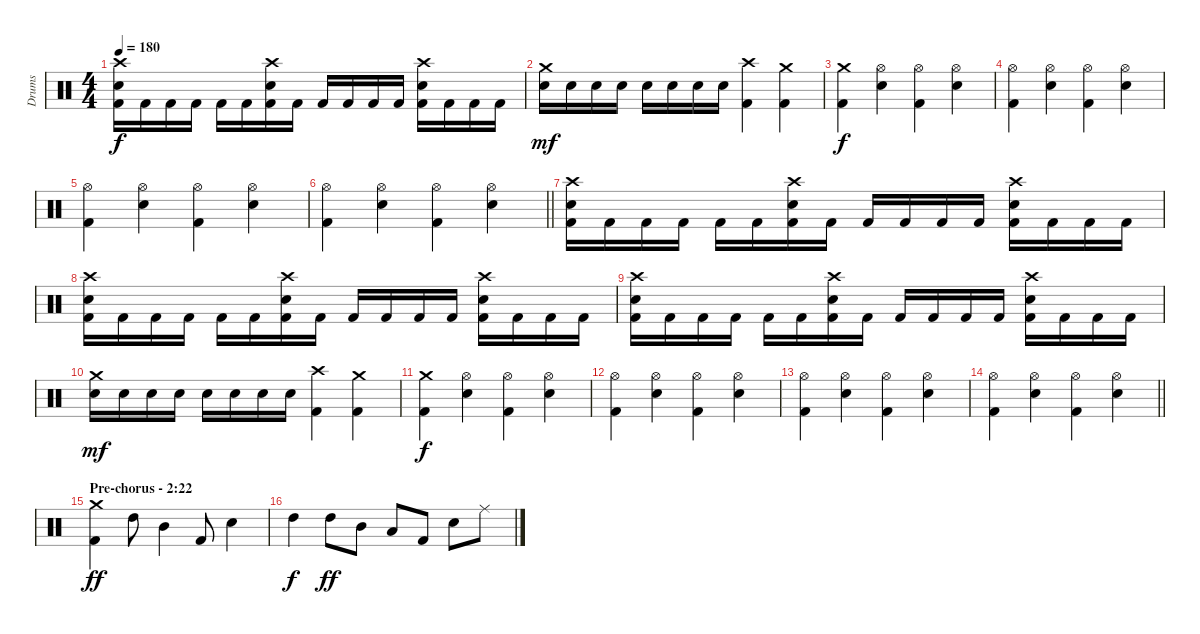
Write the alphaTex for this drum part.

\track ("Drums" "Drums") {instrument percussion}
\staff {score}
\articulation defaults
\ts (4 4)
\tempo 180
\clef neutral
\ks c
("Crash high (hit)" "Electric Snare (hit)" "Kick (hit) 2").16{dy f} "Kick (hit) 2".16 "Kick (hit) 2".16 "Kick (hit) 2".16 "Kick (hit) 2".16 "Kick (hit) 2".16 ("Crash high (hit)" "Electric Snare (hit)" "Kick (hit) 2").16 "Kick (hit) 2".16 "Kick (hit) 2".16 "Kick (hit) 2".16 "Kick (hit) 2".16 "Kick (hit) 2".16 ("Crash high (hit)" "Electric Snare (hit)" "Kick (hit) 2").16 "Kick (hit) 2".16 "Kick (hit) 2".16 "Kick (hit) 2".16 |
("Crash medium (hit)" "Electric Snare (hit)").16{dy mf} "Electric Snare (hit)".16 "Electric Snare (hit)".16 "Electric Snare (hit)".16 "Electric Snare (hit)".16 "Electric Snare (hit)".16 "Electric Snare (hit)".16 "Electric Snare (hit)".16 ("Crash high (hit)" "Kick (hit) 2").4 ("Crash medium (hit)" "Kick (hit) 2").4 |
("Crash medium (hit)" "Kick (hit) 2").4{dy f} ("Hi-Hat (open)" "Electric Snare (hit)").4 ("Hi-Hat (open)" "Kick (hit) 2").4 ("Hi-Hat (open)" "Electric Snare (hit)").4 |
("Hi-Hat (open)" "Kick (hit) 2").4 ("Hi-Hat (open)" "Electric Snare (hit)").4 ("Hi-Hat (open)" "Kick (hit) 2").4 ("Hi-Hat (open)" "Electric Snare (hit)").4 |
("Hi-Hat (open)" "Kick (hit) 2").4 ("Hi-Hat (open)" "Electric Snare (hit)").4 ("Hi-Hat (open)" "Kick (hit) 2").4 ("Hi-Hat (open)" "Electric Snare (hit)").4 |
\barLineRight lightlight
("Hi-Hat (open)" "Kick (hit) 2").4 ("Hi-Hat (open)" "Electric Snare (hit)").4 ("Hi-Hat (open)" "Kick (hit) 2").4 ("Hi-Hat (open)" "Electric Snare (hit)").4 |
("Crash high (hit)" "Electric Snare (hit)" "Kick (hit) 2").16 "Kick (hit) 2".16 "Kick (hit) 2".16 "Kick (hit) 2".16 "Kick (hit) 2".16 "Kick (hit) 2".16 ("Crash high (hit)" "Electric Snare (hit)" "Kick (hit) 2").16 "Kick (hit) 2".16 "Kick (hit) 2".16 "Kick (hit) 2".16 "Kick (hit) 2".16 "Kick (hit) 2".16 ("Crash high (hit)" "Electric Snare (hit)" "Kick (hit) 2").16 "Kick (hit) 2".16 "Kick (hit) 2".16 "Kick (hit) 2".16 |
("Crash high (hit)" "Electric Snare (hit)" "Kick (hit) 2").16 "Kick (hit) 2".16 "Kick (hit) 2".16 "Kick (hit) 2".16 "Kick (hit) 2".16 "Kick (hit) 2".16 ("Crash high (hit)" "Electric Snare (hit)" "Kick (hit) 2").16 "Kick (hit) 2".16 "Kick (hit) 2".16 "Kick (hit) 2".16 "Kick (hit) 2".16 "Kick (hit) 2".16 ("Crash high (hit)" "Electric Snare (hit)" "Kick (hit) 2").16 "Kick (hit) 2".16 "Kick (hit) 2".16 "Kick (hit) 2".16 |
("Crash high (hit)" "Electric Snare (hit)" "Kick (hit) 2").16 "Kick (hit) 2".16 "Kick (hit) 2".16 "Kick (hit) 2".16 "Kick (hit) 2".16 "Kick (hit) 2".16 ("Crash high (hit)" "Electric Snare (hit)" "Kick (hit) 2").16 "Kick (hit) 2".16 "Kick (hit) 2".16 "Kick (hit) 2".16 "Kick (hit) 2".16 "Kick (hit) 2".16 ("Crash high (hit)" "Electric Snare (hit)" "Kick (hit) 2").16 "Kick (hit) 2".16 "Kick (hit) 2".16 "Kick (hit) 2".16 |
("Crash medium (hit)" "Electric Snare (hit)").16{dy mf} "Electric Snare (hit)".16 "Electric Snare (hit)".16 "Electric Snare (hit)".16 "Electric Snare (hit)".16 "Electric Snare (hit)".16 "Electric Snare (hit)".16 "Electric Snare (hit)".16 ("Crash high (hit)" "Kick (hit) 2").4 ("Crash medium (hit)" "Kick (hit) 2").4 |
("Crash medium (hit)" "Kick (hit) 2").4{dy f} ("Hi-Hat (open)" "Electric Snare (hit)").4 ("Hi-Hat (open)" "Kick (hit) 2").4 ("Hi-Hat (open)" "Electric Snare (hit)").4 |
("Hi-Hat (open)" "Kick (hit) 2").4 ("Hi-Hat (open)" "Electric Snare (hit)").4 ("Hi-Hat (open)" "Kick (hit) 2").4 ("Hi-Hat (open)" "Electric Snare (hit)").4 |
("Hi-Hat (open)" "Kick (hit) 2").4 ("Hi-Hat (open)" "Electric Snare (hit)").4 ("Hi-Hat (open)" "Kick (hit) 2").4 ("Hi-Hat (open)" "Electric Snare (hit)").4 |
\barLineRight lightlight
("Hi-Hat (open)" "Kick (hit) 2").4 ("Hi-Hat (open)" "Electric Snare (hit)").4 ("Hi-Hat (open)" "Kick (hit) 2").4 ("Hi-Hat (open)" "Electric Snare (hit)").4 |
\section ("" "Pre-chorus - 2:22")
("Crash medium (hit)" "Kick (hit) 2").4{dy ff} "High Tom (hit)".8 "Mid Tom (hit)".4 "Kick (hit) 2".8 "Electric Snare (hit)".4 |
"High Tom (hit)".4{dy f} "High Tom (hit)".8{dy ff} "Mid Tom (hit)".8 "Low Tom (hit)".8 "Kick (hit) 2".8 "Electric Snare (hit)".8 "Ride (middle)".8
